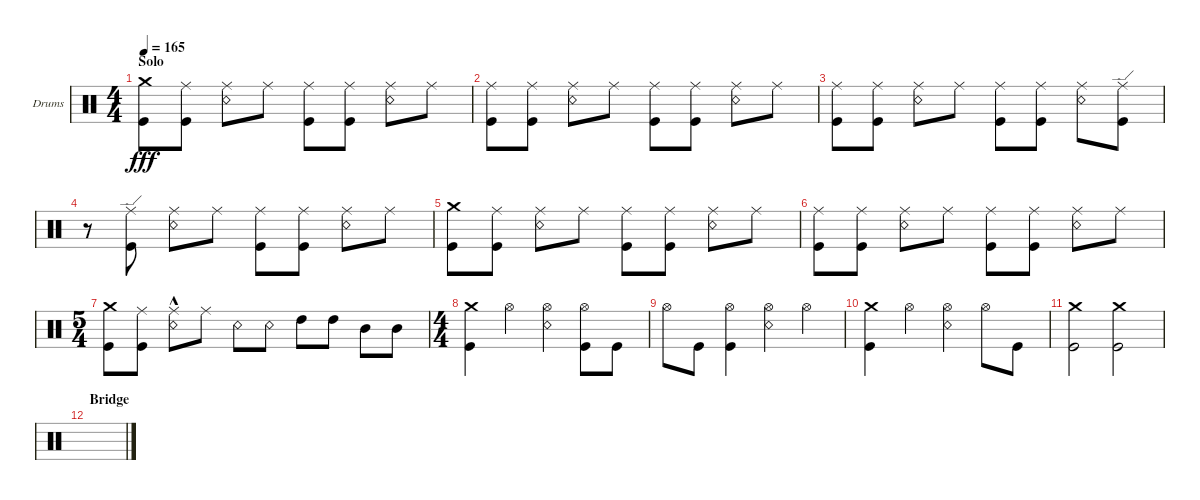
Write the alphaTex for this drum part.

\defaultSystemsLayout 4
\bracketExtendMode groupsimilarinstruments
\firstSystemTrackNameOrientation horizontal
\otherSystemsTrackNameOrientation horizontal
\track ("Drums" "Drums") {instrument percussion}
\staff {score}
\articulation defaults
\ts (4 4)
\section ("" "Solo")
\tempo 165
\clef neutral
\ks c
("Crash medium (hit)" "Kick (hit)").8{dy fff} ("Ride (middle)" "Kick (hit)").8 ("Ride (middle)" "Snare (rim shot)").8 "Ride (middle)".8 ("Ride (middle)" "Kick (hit)").8 ("Ride (middle)" "Kick (hit)").8 ("Ride (middle)" "Snare (rim shot)").8 "Ride (middle)".8 |
("Ride (middle)" "Kick (hit)").8 ("Ride (middle)" "Kick (hit)").8 ("Ride (middle)" "Snare (rim shot)").8 "Ride (middle)".8 ("Ride (middle)" "Kick (hit)").8 ("Ride (middle)" "Kick (hit)").8 ("Ride (middle)" "Snare (rim shot)").8 "Ride (middle)".8 |
("Ride (middle)" "Kick (hit)").8 ("Ride (middle)" "Kick (hit)").8 ("Ride (middle)" "Snare (rim shot)").8 "Ride (middle)".8 ("Ride (middle)" "Kick (hit)").8 ("Ride (middle)" "Kick (hit)").8 ("Ride (middle)" "Snare (rim shot)").8 ("Kick (hit)" "Ride (edge)").8 |
r.8 ("Kick (hit)" "Ride (edge)").8 ("Ride (middle)" "Snare (rim shot)").8 "Ride (middle)".8 ("Ride (middle)" "Kick (hit)").8 ("Ride (middle)" "Kick (hit)").8 ("Ride (middle)" "Snare (rim shot)").8 "Ride (middle)".8 |
("Crash medium (hit)" "Kick (hit)").8 ("Ride (middle)" "Kick (hit)").8 ("Ride (middle)" "Snare (rim shot)").8 "Ride (middle)".8 ("Ride (middle)" "Kick (hit)").8 ("Ride (middle)" "Kick (hit)").8 ("Ride (middle)" "Snare (rim shot)").8 "Ride (middle)".8 |
("Ride (middle)" "Kick (hit)").8 ("Ride (middle)" "Kick (hit)").8 ("Ride (middle)" "Snare (rim shot)").8 "Ride (middle)".8 ("Ride (middle)" "Kick (hit)").8 ("Ride (middle)" "Kick (hit)").8 ("Ride (middle)" "Snare (rim shot)").8 "Ride (middle)".8 |
\ts (5 4)
("Crash medium (hit)" "Kick (hit)").8 ("Ride (middle)" "Kick (hit)").8 ("Snare (rim shot)"{hac} "Ride (middle)").8 "Ride (middle)".8 "Snare (rim shot)".8 "Snare (rim shot)".8 "High Tom (hit)".8 "High Tom (hit)".8 "Mid Tom (hit)".8 "Mid Tom (hit)".8 |
\ts (4 4)
("Crash medium (hit)" "Kick (hit)").4 "Hi-Hat (open)".4 ("Hi-Hat (open)" "Snare (rim shot)").4 ("Hi-Hat (open)" "Kick (hit)").8 "Kick (hit)".8 |
"Hi-Hat (open)".8 "Kick (hit)".8 ("Hi-Hat (open)" "Kick (hit)").4 ("Hi-Hat (open)" "Snare (rim shot)").4 "Hi-Hat (open)".4 |
("Crash medium (hit)" "Kick (hit)").4 "Hi-Hat (open)".4 ("Hi-Hat (open)" "Snare (rim shot)").4 "Hi-Hat (open)".8 "Kick (hit)".8 |
("Crash medium (hit)" "Kick (hit)").2 ("Crash medium (hit)" "Kick (hit)").2 |
\section ("" "Bridge")
